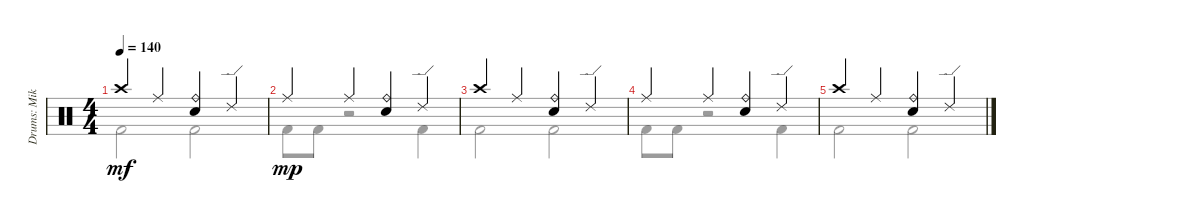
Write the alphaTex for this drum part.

\track ("Drums: Mike" "Drums: Mik") {instrument percussion}
\staff {score}
\articulation defaults
\voice
\ts (4 4)
\tempo 140
\clef neutral
\ks c "Crash high (hit)".4{dy mf} "Ride (middle)".4
("Ride (bell)" "Snare (hit) 2").4 "Ride (edge) 2".4 |
"Ride (middle)".4{dy mp volume 0} "Ride (middle)".4 ("Ride (bell)" "Snare (hit) 2").4 "Ride (edge) 2".4 |
"Crash high (hit)".4 "Ride (middle)".4 ("Ride (bell)" "Snare (hit) 2").4 "Ride (edge) 2".4 |
"Ride (middle)".4 "Ride (middle)".4 ("Ride (bell)" "Snare (hit) 2").4 "Ride (edge) 2".4 |
"Crash high (hit)".4 "Ride (middle)".4 ("Ride (bell)" "Snare (hit) 2").4 "Ride (edge) 2".4
\voice
\clef neutral
\ottava regular
\simile none
\ks c "Kick (hit) 2".2{dy mf} "Kick (hit) 2".2
|
"Kick (hit) 2".8{dy mp} "Kick (hit) 2".8 r.2 "Kick (hit) 2".4 |
"Kick (hit) 2".2 "Kick (hit) 2".2 |
"Kick (hit) 2".8 "Kick (hit) 2".8 r.2 "Kick (hit) 2".4 |
"Kick (hit) 2".2 "Kick (hit) 2".2
